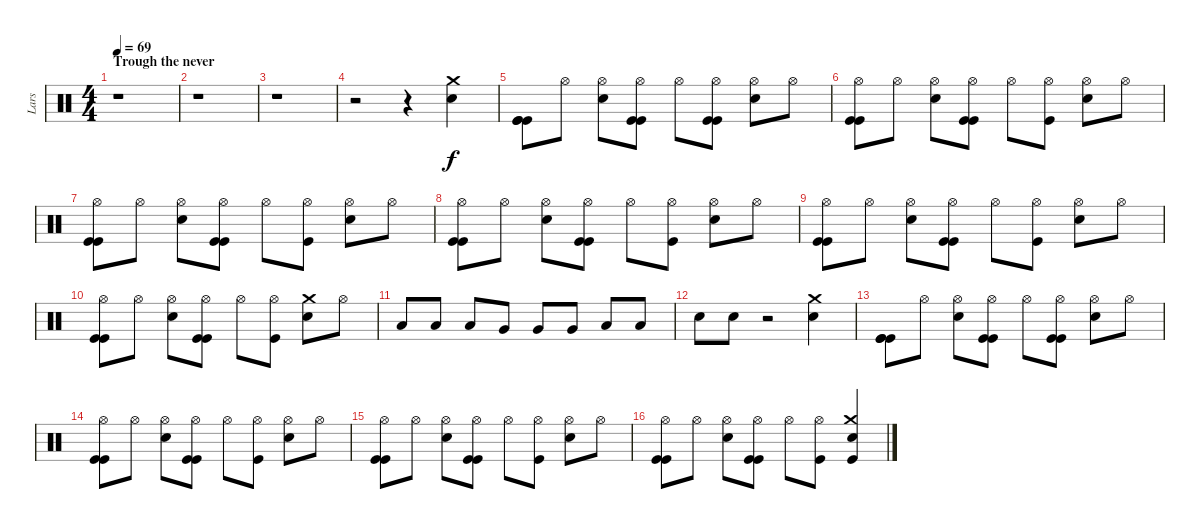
\track ("Lars" "Lars") {instrument percussion}
\staff {score}
\articulation defaults
\ts (4 4)
\section ("" "Trough the never")
\tempo 69
\tempo 188
\tempo 69
\clef neutral
\ks c
r.1{dy f} |
r.1 |
r.1 |
r.2 r.4 ("Electric Snare (hit)" "Crash medium (hit)").4 |
("Kick (hit)" "Kick (hit)" "Kick (hit)").8 "Hi-Hat (open)".8 ("Hi-Hat (open)" "Electric Snare (hit)").8 ("Hi-Hat (open)" "Kick (hit)" "Kick (hit)").8 "Hi-Hat (open)".8 ("Hi-Hat (open)" "Kick (hit)" "Kick (hit)").8 ("Hi-Hat (open)" "Electric Snare (hit)").8 "Hi-Hat (open)".8 |
("Hi-Hat (open)" "Kick (hit)" "Kick (hit)").8 "Hi-Hat (open)".8 ("Hi-Hat (open)" "Electric Snare (hit)").8 ("Hi-Hat (open)" "Kick (hit)" "Kick (hit)").8 "Hi-Hat (open)".8 ("Hi-Hat (open)" "Kick (hit)").8 ("Hi-Hat (open)" "Electric Snare (hit)").8 "Hi-Hat (open)".8 |
("Hi-Hat (open)" "Kick (hit)" "Kick (hit)").8 "Hi-Hat (open)".8 ("Hi-Hat (open)" "Electric Snare (hit)").8 ("Hi-Hat (open)" "Kick (hit)" "Kick (hit)").8 "Hi-Hat (open)".8 ("Hi-Hat (open)" "Kick (hit)").8 ("Hi-Hat (open)" "Electric Snare (hit)").8 "Hi-Hat (open)".8 |
("Hi-Hat (open)" "Kick (hit)" "Kick (hit)").8 "Hi-Hat (open)".8 ("Hi-Hat (open)" "Electric Snare (hit)").8 ("Hi-Hat (open)" "Kick (hit)" "Kick (hit)").8 "Hi-Hat (open)".8 ("Hi-Hat (open)" "Kick (hit)").8 ("Hi-Hat (open)" "Electric Snare (hit)").8 "Hi-Hat (open)".8 |
("Hi-Hat (open)" "Kick (hit)" "Kick (hit)").8 "Hi-Hat (open)".8 ("Hi-Hat (open)" "Electric Snare (hit)").8 ("Hi-Hat (open)" "Kick (hit)" "Kick (hit)").8 "Hi-Hat (open)".8 ("Hi-Hat (open)" "Kick (hit)").8 ("Hi-Hat (open)" "Electric Snare (hit)").8 "Hi-Hat (open)".8 |
("Hi-Hat (open)" "Kick (hit)" "Kick (hit)").8 "Hi-Hat (open)".8 ("Hi-Hat (open)" "Electric Snare (hit)").8 ("Hi-Hat (open)" "Kick (hit)" "Kick (hit)").8 "Hi-Hat (open)".8 ("Hi-Hat (open)" "Kick (hit)").8 ("Electric Snare (hit)" "Crash medium (hit)").8 "Hi-Hat (open)".8 |
"Low Tom (hit)".8 "Low Tom (hit)".8 "Low Tom (hit)".8 "Very Low Tom (hit)".8 "Very Low Tom (hit)".8 "Very Low Tom (hit)".8 "Low Floor Tom (hit)".8 "Low Floor Tom (hit)".8 |
"Electric Snare (hit)".8 "Electric Snare (hit)".8 r.2 ("Electric Snare (hit)" "Crash medium (hit)").4 |
("Kick (hit)" "Kick (hit)" "Kick (hit)").8 "Hi-Hat (open)".8 ("Hi-Hat (open)" "Electric Snare (hit)").8 ("Hi-Hat (open)" "Kick (hit)" "Kick (hit)").8 "Hi-Hat (open)".8 ("Hi-Hat (open)" "Kick (hit)" "Kick (hit)").8 ("Hi-Hat (open)" "Electric Snare (hit)").8 "Hi-Hat (open)".8 |
("Hi-Hat (open)" "Kick (hit)" "Kick (hit)").8 "Hi-Hat (open)".8 ("Hi-Hat (open)" "Electric Snare (hit)").8 ("Hi-Hat (open)" "Kick (hit)" "Kick (hit)").8 "Hi-Hat (open)".8 ("Hi-Hat (open)" "Kick (hit)").8 ("Hi-Hat (open)" "Electric Snare (hit)").8 "Hi-Hat (open)".8 |
("Hi-Hat (open)" "Kick (hit)" "Kick (hit)").8 "Hi-Hat (open)".8 ("Hi-Hat (open)" "Electric Snare (hit)").8 ("Hi-Hat (open)" "Kick (hit)" "Kick (hit)").8 "Hi-Hat (open)".8 ("Hi-Hat (open)" "Kick (hit)").8 ("Hi-Hat (open)" "Electric Snare (hit)").8 "Hi-Hat (open)".8 |
("Hi-Hat (open)" "Kick (hit)" "Kick (hit)").8 "Hi-Hat (open)".8 ("Hi-Hat (open)" "Electric Snare (hit)").8 ("Hi-Hat (open)" "Kick (hit)" "Kick (hit)").8 "Hi-Hat (open)".8 ("Hi-Hat (open)" "Kick (hit)").8 ("Kick (hit)" "Electric Snare (hit)" "Crash medium (hit)").4
